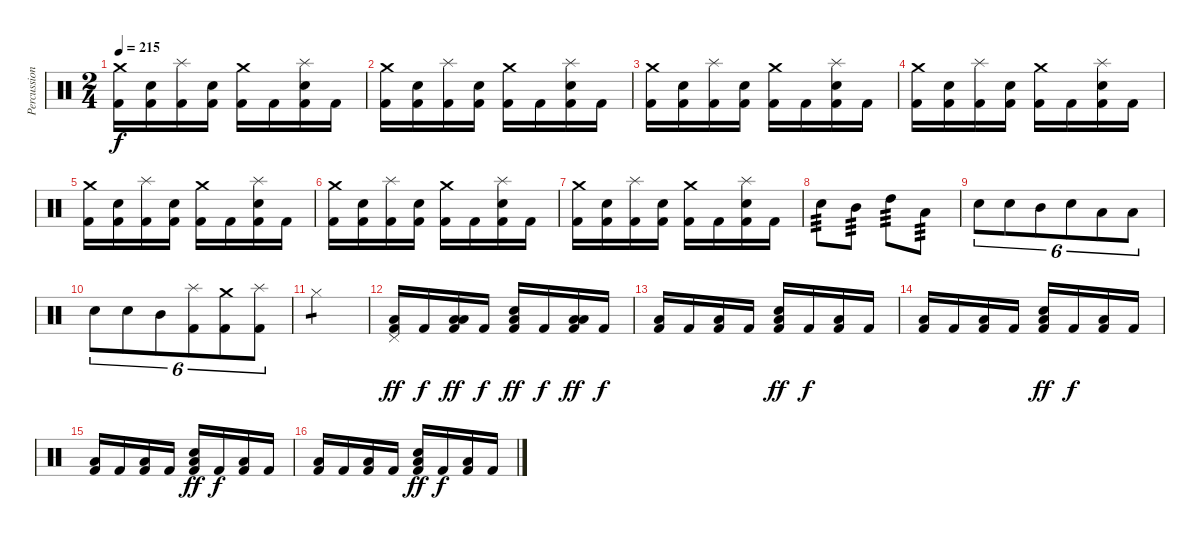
\track ("Percussion" "Percussion") {instrument percussion}
\staff {score}
\articulation defaults
\ts (2 4)
\tempo 215
\clef neutral
\ks c
("Kick (hit) 2" "Crash medium (hit)").16{dy f} ("Kick (hit) 2" "Snare (hit) 2").16 ("Kick (hit) 2" "Splash (hit)").16 ("Kick (hit) 2" "Snare (hit) 2").16 ("Kick (hit) 2" "Crash medium (hit)").16 "Kick (hit) 2".16 ("Kick (hit) 2" "Snare (hit) 2" "Splash (hit)").16 "Kick (hit) 2".16 |
("Kick (hit) 2" "Crash medium (hit)").16 ("Kick (hit) 2" "Snare (hit) 2").16 ("Kick (hit) 2" "Splash (hit)").16 ("Kick (hit) 2" "Snare (hit) 2").16 ("Kick (hit) 2" "Crash medium (hit)").16 "Kick (hit) 2".16 ("Kick (hit) 2" "Snare (hit) 2" "Splash (hit)").16 "Kick (hit) 2".16 |
("Kick (hit) 2" "Crash medium (hit)").16 ("Kick (hit) 2" "Snare (hit) 2").16 ("Kick (hit) 2" "Splash (hit)").16 ("Kick (hit) 2" "Snare (hit) 2").16 ("Kick (hit) 2" "Crash medium (hit)").16 "Kick (hit) 2".16 ("Kick (hit) 2" "Snare (hit) 2" "Splash (hit)").16 "Kick (hit) 2".16 |
("Kick (hit) 2" "Crash medium (hit)").16 ("Kick (hit) 2" "Snare (hit) 2").16 ("Kick (hit) 2" "Splash (hit)").16 ("Kick (hit) 2" "Snare (hit) 2").16 ("Kick (hit) 2" "Crash medium (hit)").16 "Kick (hit) 2".16 ("Kick (hit) 2" "Snare (hit) 2" "Splash (hit)").16 "Kick (hit) 2".16 |
("Kick (hit) 2" "Crash medium (hit)").16 ("Kick (hit) 2" "Snare (hit) 2").16 ("Kick (hit) 2" "Splash (hit)").16 ("Kick (hit) 2" "Snare (hit) 2").16 ("Kick (hit) 2" "Crash medium (hit)").16 "Kick (hit) 2".16 ("Kick (hit) 2" "Snare (hit) 2" "Splash (hit)").16 "Kick (hit) 2".16 |
("Kick (hit) 2" "Crash medium (hit)").16 ("Kick (hit) 2" "Snare (hit) 2").16 ("Kick (hit) 2" "Splash (hit)").16 ("Kick (hit) 2" "Snare (hit) 2").16 ("Kick (hit) 2" "Crash medium (hit)").16 "Kick (hit) 2".16 ("Kick (hit) 2" "Snare (hit) 2" "Splash (hit)").16 "Kick (hit) 2".16 |
("Kick (hit) 2" "Crash medium (hit)").16 ("Kick (hit) 2" "Snare (hit) 2").16 ("Kick (hit) 2" "Splash (hit)").16 ("Kick (hit) 2" "Snare (hit) 2").16 ("Kick (hit) 2" "Crash medium (hit)").16 "Kick (hit) 2".16 ("Kick (hit) 2" "Snare (hit) 2" "Splash (hit)").16 "Kick (hit) 2".16 |
"Snare (hit) 2".8{tp 3} "Mid Tom (hit)".8{tp 3} "High Tom (hit)".8{tp 3} "Low Tom (hit)".8{tp 3} |
"Snare (hit) 2".8{tu (6 4)} "Snare (hit) 2".8{tu (6 4)} "Mid Tom (hit)".8{tu (6 4)} "Snare (hit) 2".8{tu (6 4)} "Low Tom (hit)".8{tu (6 4)} "Low Tom (hit)".8{tu (6 4)} |
"Snare (hit) 2".8{tu (6 4)} "Snare (hit) 2".8{tu (6 4)} "Mid Tom (hit)".8{tu (6 4)} ("Kick (hit) 2" "Splash (hit)").8{tu (6 4)} ("Kick (hit) 2" "Crash medium (hit)").8{tu (6 4)} ("Kick (hit) 2" "Splash (hit)").8{tu (6 4)} |
"Hi-Hat (closed)".2{tp 1} |
("Kick (hit) 2" "Pedal Hi-Hat (hit)" "Low Tom (hit)").16{dy ff} "Kick (hit) 2".16{dy f} ("Kick (hit) 2" "Low Tom (hit)" "Low Tom (hit)").16{dy ff} "Kick (hit) 2".16{dy f} ("Kick (hit) 2" "Snare (hit) 2" "Low Tom (hit)").16{dy ff} "Kick (hit) 2".16{dy f} ("Kick (hit) 2" "Low Tom (hit)" "Low Tom (hit)").16{dy ff} "Kick (hit) 2".16{dy f} |
("Kick (hit) 2" "Low Tom (hit)").16 "Kick (hit) 2".16 ("Kick (hit) 2" "Low Tom (hit)").16 "Kick (hit) 2".16 ("Kick (hit) 2" "Snare (hit) 2" "Low Tom (hit)").16{dy ff} "Kick (hit) 2".16{dy f} ("Kick (hit) 2" "Low Tom (hit)").16 "Kick (hit) 2".16 |
("Kick (hit) 2" "Low Tom (hit)").16 "Kick (hit) 2".16 ("Kick (hit) 2" "Low Tom (hit)").16 "Kick (hit) 2".16 ("Kick (hit) 2" "Snare (hit) 2" "Low Tom (hit)").16{dy ff} "Kick (hit) 2".16{dy f} ("Kick (hit) 2" "Low Tom (hit)").16 "Kick (hit) 2".16 |
("Kick (hit) 2" "Low Tom (hit)").16 "Kick (hit) 2".16 ("Kick (hit) 2" "Low Tom (hit)").16 "Kick (hit) 2".16 ("Kick (hit) 2" "Snare (hit) 2" "Low Tom (hit)").16{dy ff} "Kick (hit) 2".16{dy f} ("Kick (hit) 2" "Low Tom (hit)").16 "Kick (hit) 2".16 |
("Kick (hit) 2" "Low Tom (hit)").16 "Kick (hit) 2".16 ("Kick (hit) 2" "Low Tom (hit)").16 "Kick (hit) 2".16 ("Kick (hit) 2" "Snare (hit) 2" "Low Tom (hit)").16{dy ff} "Kick (hit) 2".16{dy f} ("Kick (hit) 2" "Low Tom (hit)").16 "Kick (hit) 2".16
